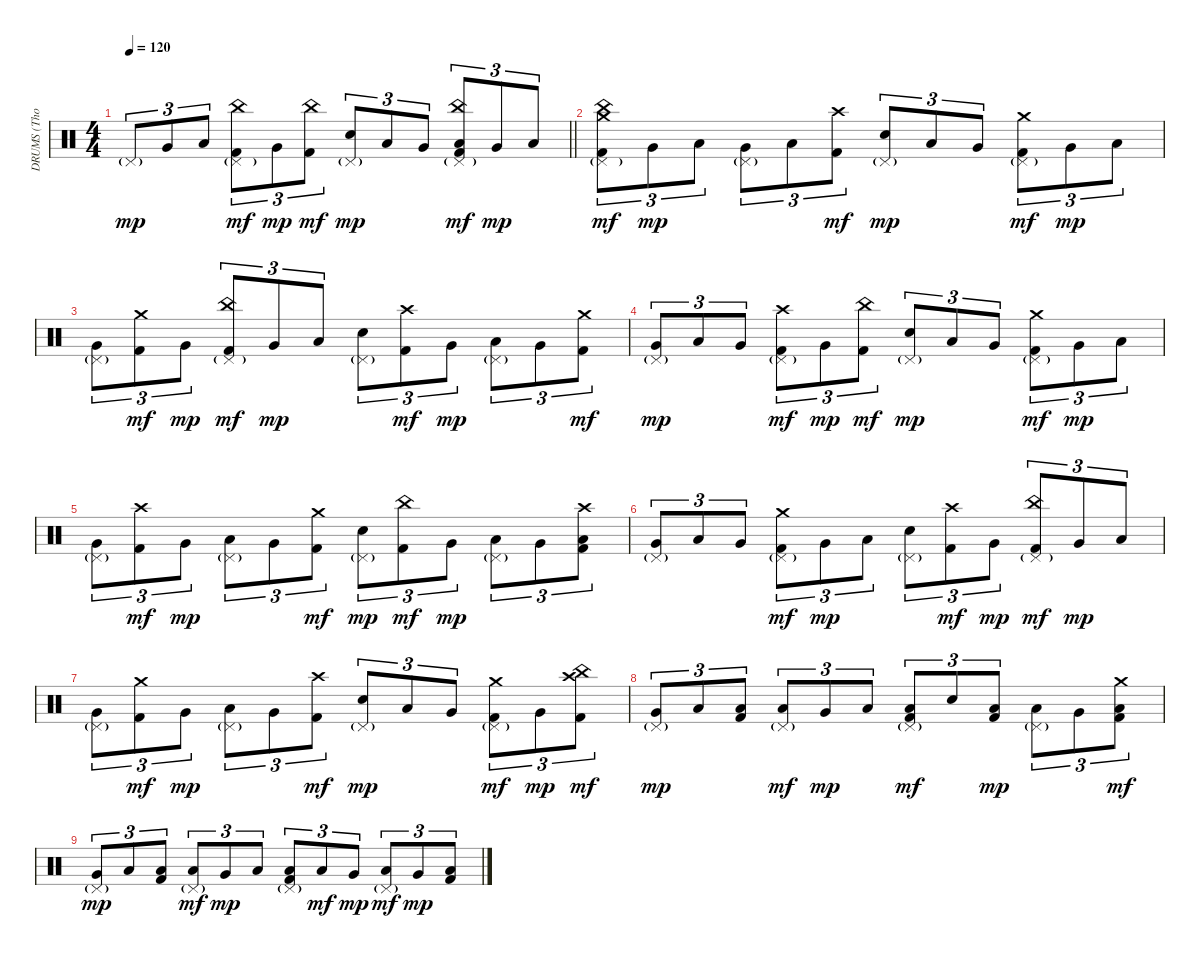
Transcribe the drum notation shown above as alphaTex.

\track ("DRUMS (Thomas Haake)" "DRUMS (Tho") {instrument percussion}
\staff {score}
\articulation defaults
\ts (4 4)
\tempo 120
\clef neutral
\barLineRight lightlight
\ks c "Pedal Hi-Hat (hit)"{g}.8{tu (3 2) dy mp} "Very Low Tom (hit)".8{tu (3 2)} "Low Floor Tom (hit)".8{tu (3 2)}
("Pedal Hi-Hat (hit)"{g} "China (hit)" "Kick (hit) 2").8{tu (3 2) dy mf} "Very Low Tom (hit)".8{tu (3 2) dy mp} ("China (hit)" "Kick (hit) 2").8{tu (3 2) dy mf} ("Pedal Hi-Hat (hit)"{g} "Electric Snare (hit)").8{tu (3 2) dy mp} "Low Floor Tom (hit)".8{tu (3 2)} "Very Low Tom (hit)".8{tu (3 2)} ("Pedal Hi-Hat (hit)"{g} "China (hit)" "Low Floor Tom (hit)" "Kick (hit) 2").8{tu (3 2) dy mf} "Very Low Tom (hit)".8{tu (3 2) dy mp} "Low Floor Tom (hit)".8{tu (3 2)} |
("Pedal Hi-Hat (hit)"{g} "Crash medium (hit)" "China (hit)" "Kick (hit) 2").8{tu (3 2) dy mf} "Very Low Tom (hit)".8{tu (3 2) dy mp} "Low Floor Tom (hit)".8{tu (3 2)} ("Pedal Hi-Hat (hit)"{g} "Very Low Tom (hit)").8{tu (3 2)} "Low Floor Tom (hit)".8{tu (3 2)} ("Crash high (hit)" "Kick (hit) 2").8{tu (3 2) dy mf} ("Pedal Hi-Hat (hit)"{g} "Electric Snare (hit)").8{tu (3 2) dy mp} "Low Floor Tom (hit)".8{tu (3 2)} "Very Low Tom (hit)".8{tu (3 2)} ("Pedal Hi-Hat (hit)"{g} "Crash medium (hit)" "Kick (hit) 2").8{tu (3 2) dy mf} "Very Low Tom (hit)".8{tu (3 2) dy mp} "Low Floor Tom (hit)".8{tu (3 2)} |
("Pedal Hi-Hat (hit)"{g} "Very Low Tom (hit)").8{tu (3 2)} ("Crash medium (hit)" "Kick (hit) 2").8{tu (3 2) dy mf} "Very Low Tom (hit)".8{tu (3 2) dy mp} ("Pedal Hi-Hat (hit)"{g} "China (hit)" "Kick (hit) 2").8{tu (3 2) dy mf} "Very Low Tom (hit)".8{tu (3 2) dy mp} "Low Floor Tom (hit)".8{tu (3 2)} ("Pedal Hi-Hat (hit)"{g} "Electric Snare (hit)").8{tu (3 2)} ("Crash high (hit)" "Kick (hit) 2").8{tu (3 2) dy mf} "Very Low Tom (hit)".8{tu (3 2) dy mp} ("Pedal Hi-Hat (hit)"{g} "Low Floor Tom (hit)").8{tu (3 2)} "Very Low Tom (hit)".8{tu (3 2)} ("Crash medium (hit)" "Kick (hit) 2").8{tu (3 2) dy mf} |
("Pedal Hi-Hat (hit)"{g} "Very Low Tom (hit)").8{tu (3 2) dy mp} "Low Floor Tom (hit)".8{tu (3 2)} "Very Low Tom (hit)".8{tu (3 2)} ("Pedal Hi-Hat (hit)"{g} "Crash high (hit)" "Kick (hit) 2").8{tu (3 2) dy mf} "Very Low Tom (hit)".8{tu (3 2) dy mp} ("China (hit)" "Kick (hit) 2").8{tu (3 2) dy mf} ("Pedal Hi-Hat (hit)"{g} "Electric Snare (hit)").8{tu (3 2) dy mp} "Low Floor Tom (hit)".8{tu (3 2)} "Very Low Tom (hit)".8{tu (3 2)} ("Pedal Hi-Hat (hit)"{g} "Crash medium (hit)" "Kick (hit) 2").8{tu (3 2) dy mf} "Very Low Tom (hit)".8{tu (3 2) dy mp} "Low Floor Tom (hit)".8{tu (3 2)} |
("Pedal Hi-Hat (hit)"{g} "Very Low Tom (hit)").8{tu (3 2)} ("Crash high (hit)" "Kick (hit) 2").8{tu (3 2) dy mf} "Very Low Tom (hit)".8{tu (3 2) dy mp} ("Pedal Hi-Hat (hit)"{g} "Low Floor Tom (hit)").8{tu (3 2)} "Very Low Tom (hit)".8{tu (3 2)} ("Crash medium (hit)" "Kick (hit) 2").8{tu (3 2) dy mf} ("Pedal Hi-Hat (hit)"{g} "Electric Snare (hit)").8{tu (3 2) dy mp} ("China (hit)" "Kick (hit) 2").8{tu (3 2) dy mf} "Very Low Tom (hit)".8{tu (3 2) dy mp} ("Pedal Hi-Hat (hit)"{g} "Low Floor Tom (hit)").8{tu (3 2)} "Very Low Tom (hit)".8{tu (3 2)} ("Crash high (hit)" "Low Floor Tom (hit)" "Kick (hit) 2").8{tu (3 2)} |
("Pedal Hi-Hat (hit)"{g} "Very Low Tom (hit)").8{tu (3 2)} "Low Floor Tom (hit)".8{tu (3 2)} "Very Low Tom (hit)".8{tu (3 2)} ("Pedal Hi-Hat (hit)"{g} "Crash medium (hit)" "Kick (hit) 2").8{tu (3 2) dy mf} "Very Low Tom (hit)".8{tu (3 2) dy mp} "Low Floor Tom (hit)".8{tu (3 2)} ("Pedal Hi-Hat (hit)"{g} "Electric Snare (hit)").8{tu (3 2)} ("Crash high (hit)" "Kick (hit) 2").8{tu (3 2) dy mf} "Very Low Tom (hit)".8{tu (3 2) dy mp} ("Pedal Hi-Hat (hit)"{g} "China (hit)" "Kick (hit) 2").8{tu (3 2) dy mf} "Very Low Tom (hit)".8{tu (3 2) dy mp} "Low Floor Tom (hit)".8{tu (3 2)} |
("Pedal Hi-Hat (hit)"{g} "Very Low Tom (hit)").8{tu (3 2)} ("Crash medium (hit)" "Kick (hit) 2").8{tu (3 2) dy mf} "Very Low Tom (hit)".8{tu (3 2) dy mp} ("Pedal Hi-Hat (hit)"{g} "Low Floor Tom (hit)").8{tu (3 2)} "Very Low Tom (hit)".8{tu (3 2)} ("Crash high (hit)" "Kick (hit) 2").8{tu (3 2) dy mf} ("Pedal Hi-Hat (hit)"{g} "Electric Snare (hit)").8{tu (3 2) dy mp} "Low Floor Tom (hit)".8{tu (3 2)} "Very Low Tom (hit)".8{tu (3 2)} ("Pedal Hi-Hat (hit)"{g} "Crash medium (hit)" "Kick (hit) 2").8{tu (3 2) dy mf} "Very Low Tom (hit)".8{tu (3 2) dy mp} ("Crash high (hit)" "China (hit)" "Kick (hit) 2").8{tu (3 2) dy mf} |
("Pedal Hi-Hat (hit)"{g} "Very Low Tom (hit)").8{tu (3 2) dy mp} "Low Floor Tom (hit)".8{tu (3 2)} ("Low Floor Tom (hit)" "Kick (hit) 2").8{tu (3 2)} ("Pedal Hi-Hat (hit)"{g} "Low Floor Tom (hit)").8{tu (3 2) dy mf} "Very Low Tom (hit)".8{tu (3 2) dy mp} "Low Floor Tom (hit)".8{tu (3 2)} ("Pedal Hi-Hat (hit)"{g} "Low Floor Tom (hit)" "Kick (hit) 2").8{tu (3 2) dy mf} "Electric Snare (hit)".8{tu (3 2)} ("Low Floor Tom (hit)" "Kick (hit) 2").8{tu (3 2) dy mp} ("Pedal Hi-Hat (hit)"{g} "Low Floor Tom (hit)").8{tu (3 2)} "Very Low Tom (hit)".8{tu (3 2)} ("Crash medium (hit)" "Low Floor Tom (hit)" "Kick (hit) 2").8{tu (3 2) dy mf} |
("Pedal Hi-Hat (hit)"{g} "Very Low Tom (hit)").8{tu (3 2) dy mp} "Low Floor Tom (hit)".8{tu (3 2)} ("Low Floor Tom (hit)" "Kick (hit) 2").8{tu (3 2)} ("Pedal Hi-Hat (hit)"{g} "Low Floor Tom (hit)").8{tu (3 2) dy mf} "Very Low Tom (hit)".8{tu (3 2) dy mp} "Low Floor Tom (hit)".8{tu (3 2)} ("Pedal Hi-Hat (hit)"{g} "Low Floor Tom (hit)" "Kick (hit) 2").8{tu (3 2)} "Low Floor Tom (hit)".8{tu (3 2) dy mf} "Very Low Tom (hit)".8{tu (3 2) dy mp} ("Pedal Hi-Hat (hit)"{g} "Low Floor Tom (hit)").8{tu (3 2) dy mf} "Very Low Tom (hit)".8{tu (3 2) dy mp} ("Low Floor Tom (hit)" "Kick (hit) 2").8{tu (3 2)}
